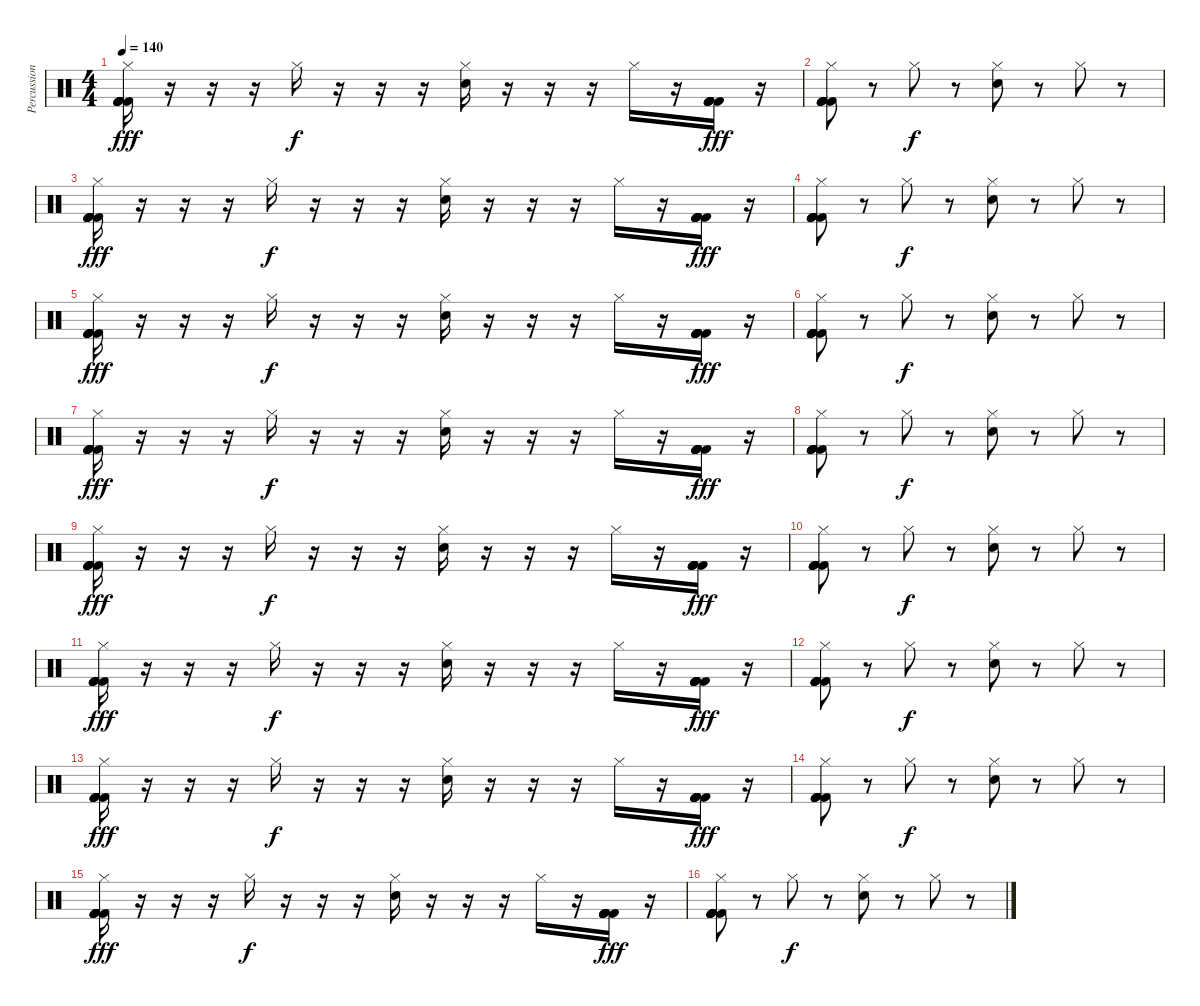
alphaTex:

\track ("Percussions" "Percussion") {instrument percussion}
\staff {score}
\articulation defaults
\ts (4 4)
\tempo 140
\clef neutral
\ks c
("Hi-Hat (closed)" "Kick (hit) 2" "Kick (hit) 2" "Kick (hit) 2" "Kick (hit) 2" "Kick (hit) 2").16{dy fff} r.16 r.16 r.16 "Hi-Hat (closed)".16{dy f} r.16 r.16 r.16 ("Hi-Hat (closed)" "Snare (hit) 2").16 r.16 r.16 r.16 "Hi-Hat (closed)".16 r.16 ("Kick (hit) 2" "Kick (hit) 2" "Kick (hit) 2" "Kick (hit) 2" "Kick (hit) 2" "Kick (hit) 2").16{dy fff} r.16 |
("Hi-Hat (closed)" "Kick (hit) 2" "Kick (hit) 2" "Kick (hit) 2" "Kick (hit) 2" "Kick (hit) 2").8 r.8 "Hi-Hat (closed)".8{dy f} r.8 ("Hi-Hat (closed)" "Snare (hit) 2").8 r.8 "Hi-Hat (closed)".8 r.8 |
("Hi-Hat (closed)" "Kick (hit) 2" "Kick (hit) 2" "Kick (hit) 2" "Kick (hit) 2" "Kick (hit) 2").16{dy fff} r.16 r.16 r.16 "Hi-Hat (closed)".16{dy f} r.16 r.16 r.16 ("Hi-Hat (closed)" "Snare (hit) 2").16 r.16 r.16 r.16 "Hi-Hat (closed)".16 r.16 ("Kick (hit) 2" "Kick (hit) 2" "Kick (hit) 2" "Kick (hit) 2" "Kick (hit) 2" "Kick (hit) 2").16{dy fff} r.16 |
("Hi-Hat (closed)" "Kick (hit) 2" "Kick (hit) 2" "Kick (hit) 2" "Kick (hit) 2" "Kick (hit) 2").8 r.8 "Hi-Hat (closed)".8{dy f} r.8 ("Hi-Hat (closed)" "Snare (hit) 2").8 r.8 "Hi-Hat (closed)".8 r.8 |
("Hi-Hat (closed)" "Kick (hit) 2" "Kick (hit) 2" "Kick (hit) 2" "Kick (hit) 2" "Kick (hit) 2").16{dy fff} r.16 r.16 r.16 "Hi-Hat (closed)".16{dy f} r.16 r.16 r.16 ("Hi-Hat (closed)" "Snare (hit) 2").16 r.16 r.16 r.16 "Hi-Hat (closed)".16 r.16 ("Kick (hit) 2" "Kick (hit) 2" "Kick (hit) 2" "Kick (hit) 2" "Kick (hit) 2" "Kick (hit) 2").16{dy fff} r.16 |
("Hi-Hat (closed)" "Kick (hit) 2" "Kick (hit) 2" "Kick (hit) 2" "Kick (hit) 2" "Kick (hit) 2").8 r.8 "Hi-Hat (closed)".8{dy f} r.8 ("Hi-Hat (closed)" "Snare (hit) 2").8 r.8 "Hi-Hat (closed)".8 r.8 |
("Hi-Hat (closed)" "Kick (hit) 2" "Kick (hit) 2" "Kick (hit) 2" "Kick (hit) 2" "Kick (hit) 2").16{dy fff} r.16 r.16 r.16 "Hi-Hat (closed)".16{dy f} r.16 r.16 r.16 ("Hi-Hat (closed)" "Snare (hit) 2").16 r.16 r.16 r.16 "Hi-Hat (closed)".16 r.16 ("Kick (hit) 2" "Kick (hit) 2" "Kick (hit) 2" "Kick (hit) 2" "Kick (hit) 2" "Kick (hit) 2").16{dy fff} r.16 |
("Hi-Hat (closed)" "Kick (hit) 2" "Kick (hit) 2" "Kick (hit) 2" "Kick (hit) 2" "Kick (hit) 2").8 r.8 "Hi-Hat (closed)".8{dy f} r.8 ("Hi-Hat (closed)" "Snare (hit) 2").8 r.8 "Hi-Hat (closed)".8 r.8 |
("Hi-Hat (closed)" "Kick (hit) 2" "Kick (hit) 2" "Kick (hit) 2" "Kick (hit) 2" "Kick (hit) 2").16{dy fff} r.16 r.16 r.16 "Hi-Hat (closed)".16{dy f} r.16 r.16 r.16 ("Hi-Hat (closed)" "Snare (hit) 2").16 r.16 r.16 r.16 "Hi-Hat (closed)".16 r.16 ("Kick (hit) 2" "Kick (hit) 2" "Kick (hit) 2" "Kick (hit) 2" "Kick (hit) 2" "Kick (hit) 2").16{dy fff} r.16 |
("Hi-Hat (closed)" "Kick (hit) 2" "Kick (hit) 2" "Kick (hit) 2" "Kick (hit) 2" "Kick (hit) 2").8 r.8 "Hi-Hat (closed)".8{dy f} r.8 ("Hi-Hat (closed)" "Snare (hit) 2").8 r.8 "Hi-Hat (closed)".8 r.8 |
("Hi-Hat (closed)" "Kick (hit) 2" "Kick (hit) 2" "Kick (hit) 2" "Kick (hit) 2" "Kick (hit) 2").16{dy fff} r.16 r.16 r.16 "Hi-Hat (closed)".16{dy f} r.16 r.16 r.16 ("Hi-Hat (closed)" "Snare (hit) 2").16 r.16 r.16 r.16 "Hi-Hat (closed)".16 r.16 ("Kick (hit) 2" "Kick (hit) 2" "Kick (hit) 2" "Kick (hit) 2" "Kick (hit) 2" "Kick (hit) 2").16{dy fff} r.16 |
("Hi-Hat (closed)" "Kick (hit) 2" "Kick (hit) 2" "Kick (hit) 2" "Kick (hit) 2" "Kick (hit) 2").8 r.8 "Hi-Hat (closed)".8{dy f} r.8 ("Hi-Hat (closed)" "Snare (hit) 2").8 r.8 "Hi-Hat (closed)".8 r.8 |
("Hi-Hat (closed)" "Kick (hit) 2" "Kick (hit) 2" "Kick (hit) 2" "Kick (hit) 2" "Kick (hit) 2").16{dy fff} r.16 r.16 r.16 "Hi-Hat (closed)".16{dy f} r.16 r.16 r.16 ("Hi-Hat (closed)" "Snare (hit) 2").16 r.16 r.16 r.16 "Hi-Hat (closed)".16 r.16 ("Kick (hit) 2" "Kick (hit) 2" "Kick (hit) 2" "Kick (hit) 2" "Kick (hit) 2" "Kick (hit) 2").16{dy fff} r.16 |
("Hi-Hat (closed)" "Kick (hit) 2" "Kick (hit) 2" "Kick (hit) 2" "Kick (hit) 2" "Kick (hit) 2").8 r.8 "Hi-Hat (closed)".8{dy f} r.8 ("Hi-Hat (closed)" "Snare (hit) 2").8 r.8 "Hi-Hat (closed)".8 r.8 |
("Hi-Hat (closed)" "Kick (hit) 2" "Kick (hit) 2" "Kick (hit) 2" "Kick (hit) 2" "Kick (hit) 2").16{dy fff} r.16 r.16 r.16 "Hi-Hat (closed)".16{dy f} r.16 r.16 r.16 ("Hi-Hat (closed)" "Snare (hit) 2").16 r.16 r.16 r.16 "Hi-Hat (closed)".16 r.16 ("Kick (hit) 2" "Kick (hit) 2" "Kick (hit) 2" "Kick (hit) 2" "Kick (hit) 2" "Kick (hit) 2").16{dy fff} r.16 |
("Hi-Hat (closed)" "Kick (hit) 2" "Kick (hit) 2" "Kick (hit) 2" "Kick (hit) 2" "Kick (hit) 2").8 r.8 "Hi-Hat (closed)".8{dy f} r.8 ("Hi-Hat (closed)" "Snare (hit) 2").8 r.8 "Hi-Hat (closed)".8 r.8
